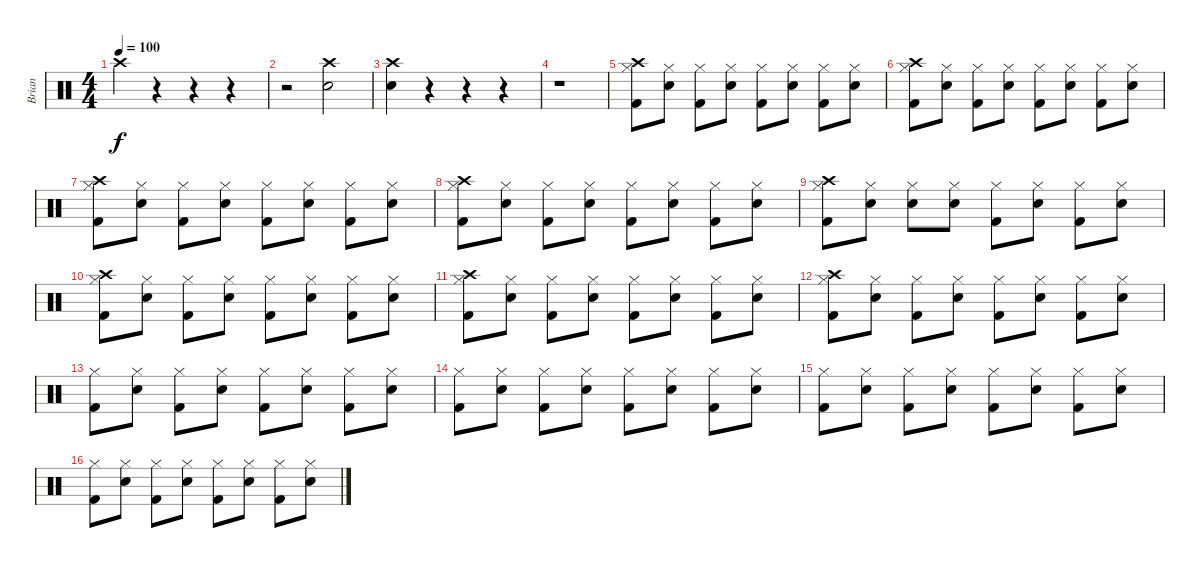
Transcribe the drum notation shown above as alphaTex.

\track ("Brian" "Brian") {instrument percussion}
\staff {score}
\articulation defaults
\ts (4 4)
\tempo 100
\clef neutral
\ks c "Crash high (hit)".4{dy f}
r.4 r.4 r.4 |
r.2 ("Crash high (hit)" "Electric Snare (hit)").2 |
("Crash high (hit)" "Electric Snare (hit)").4 r.4 r.4 r.4 |
r.1 |
("Crash high (hit)" "Hi-Hat (closed)" "Kick (hit) 2").8 ("Hi-Hat (closed)" "Electric Snare (hit)").8 ("Hi-Hat (closed)" "Kick (hit) 2").8 ("Hi-Hat (closed)" "Electric Snare (hit)").8 ("Hi-Hat (closed)" "Kick (hit) 2").8 ("Hi-Hat (closed)" "Electric Snare (hit)").8 ("Hi-Hat (closed)" "Kick (hit) 2").8 ("Hi-Hat (closed)" "Electric Snare (hit)").8 |
("Crash high (hit)" "Hi-Hat (closed)" "Kick (hit) 2").8 ("Hi-Hat (closed)" "Electric Snare (hit)").8 ("Hi-Hat (closed)" "Kick (hit) 2").8 ("Hi-Hat (closed)" "Electric Snare (hit)").8 ("Hi-Hat (closed)" "Kick (hit) 2").8 ("Hi-Hat (closed)" "Electric Snare (hit)").8 ("Hi-Hat (closed)" "Kick (hit) 2").8 ("Hi-Hat (closed)" "Electric Snare (hit)").8 |
("Crash high (hit)" "Hi-Hat (closed)" "Kick (hit) 2").8 ("Hi-Hat (closed)" "Electric Snare (hit)").8 ("Hi-Hat (closed)" "Kick (hit) 2").8 ("Hi-Hat (closed)" "Electric Snare (hit)").8 ("Hi-Hat (closed)" "Kick (hit) 2").8 ("Hi-Hat (closed)" "Electric Snare (hit)").8 ("Hi-Hat (closed)" "Kick (hit) 2").8 ("Hi-Hat (closed)" "Electric Snare (hit)").8 |
("Crash high (hit)" "Hi-Hat (closed)" "Kick (hit) 2").8 ("Hi-Hat (closed)" "Electric Snare (hit)").8 ("Hi-Hat (closed)" "Kick (hit) 2").8 ("Hi-Hat (closed)" "Electric Snare (hit)").8 ("Hi-Hat (closed)" "Kick (hit) 2").8 ("Hi-Hat (closed)" "Electric Snare (hit)").8 ("Hi-Hat (closed)" "Kick (hit) 2").8 ("Hi-Hat (closed)" "Electric Snare (hit)").8 |
("Crash high (hit)" "Hi-Hat (closed)" "Kick (hit) 2").8 ("Hi-Hat (closed)" "Electric Snare (hit)").8 ("Hi-Hat (closed)" "Electric Snare (hit)").8 ("Hi-Hat (closed)" "Electric Snare (hit)").8 ("Hi-Hat (closed)" "Kick (hit) 2").8 ("Hi-Hat (closed)" "Electric Snare (hit)").8 ("Hi-Hat (closed)" "Kick (hit) 2").8 ("Hi-Hat (closed)" "Electric Snare (hit)").8 |
("Crash high (hit)" "Hi-Hat (closed)" "Kick (hit) 2").8 ("Hi-Hat (closed)" "Electric Snare (hit)").8 ("Hi-Hat (closed)" "Kick (hit) 2").8 ("Hi-Hat (closed)" "Electric Snare (hit)").8 ("Hi-Hat (closed)" "Kick (hit) 2").8 ("Hi-Hat (closed)" "Electric Snare (hit)").8 ("Hi-Hat (closed)" "Kick (hit) 2").8 ("Hi-Hat (closed)" "Electric Snare (hit)").8 |
("Crash high (hit)" "Hi-Hat (closed)" "Kick (hit) 2").8 ("Hi-Hat (closed)" "Electric Snare (hit)").8 ("Hi-Hat (closed)" "Kick (hit) 2").8 ("Hi-Hat (closed)" "Electric Snare (hit)").8 ("Hi-Hat (closed)" "Kick (hit) 2").8 ("Hi-Hat (closed)" "Electric Snare (hit)").8 ("Hi-Hat (closed)" "Kick (hit) 2").8 ("Hi-Hat (closed)" "Electric Snare (hit)").8 |
("Crash high (hit)" "Hi-Hat (closed)" "Kick (hit) 2").8 ("Hi-Hat (closed)" "Electric Snare (hit)").8 ("Hi-Hat (closed)" "Kick (hit) 2").8 ("Hi-Hat (closed)" "Electric Snare (hit)").8 ("Hi-Hat (closed)" "Kick (hit) 2").8 ("Hi-Hat (closed)" "Electric Snare (hit)").8 ("Hi-Hat (closed)" "Kick (hit) 2").8 ("Hi-Hat (closed)" "Electric Snare (hit)").8 |
("Hi-Hat (closed)" "Kick (hit) 2").8 ("Hi-Hat (closed)" "Electric Snare (hit)").8 ("Hi-Hat (closed)" "Kick (hit) 2").8 ("Hi-Hat (closed)" "Electric Snare (hit)").8 ("Hi-Hat (closed)" "Kick (hit) 2").8 ("Hi-Hat (closed)" "Electric Snare (hit)").8 ("Hi-Hat (closed)" "Kick (hit) 2").8 ("Hi-Hat (closed)" "Electric Snare (hit)").8 |
("Hi-Hat (closed)" "Kick (hit) 2").8 ("Hi-Hat (closed)" "Electric Snare (hit)").8 ("Hi-Hat (closed)" "Kick (hit) 2").8 ("Hi-Hat (closed)" "Electric Snare (hit)").8 ("Hi-Hat (closed)" "Kick (hit) 2").8 ("Hi-Hat (closed)" "Electric Snare (hit)").8 ("Hi-Hat (closed)" "Kick (hit) 2").8 ("Hi-Hat (closed)" "Electric Snare (hit)").8 |
("Hi-Hat (closed)" "Kick (hit) 2").8 ("Hi-Hat (closed)" "Electric Snare (hit)").8 ("Hi-Hat (closed)" "Kick (hit) 2").8 ("Hi-Hat (closed)" "Electric Snare (hit)").8 ("Hi-Hat (closed)" "Kick (hit) 2").8 ("Hi-Hat (closed)" "Electric Snare (hit)").8 ("Hi-Hat (closed)" "Kick (hit) 2").8 ("Hi-Hat (closed)" "Electric Snare (hit)").8 |
("Hi-Hat (closed)" "Kick (hit) 2").8 ("Hi-Hat (closed)" "Electric Snare (hit)").8 ("Hi-Hat (closed)" "Kick (hit) 2").8 ("Hi-Hat (closed)" "Electric Snare (hit)").8 ("Hi-Hat (closed)" "Kick (hit) 2").8 ("Hi-Hat (closed)" "Electric Snare (hit)").8 ("Hi-Hat (closed)" "Kick (hit) 2").8 ("Hi-Hat (closed)" "Electric Snare (hit)").8
